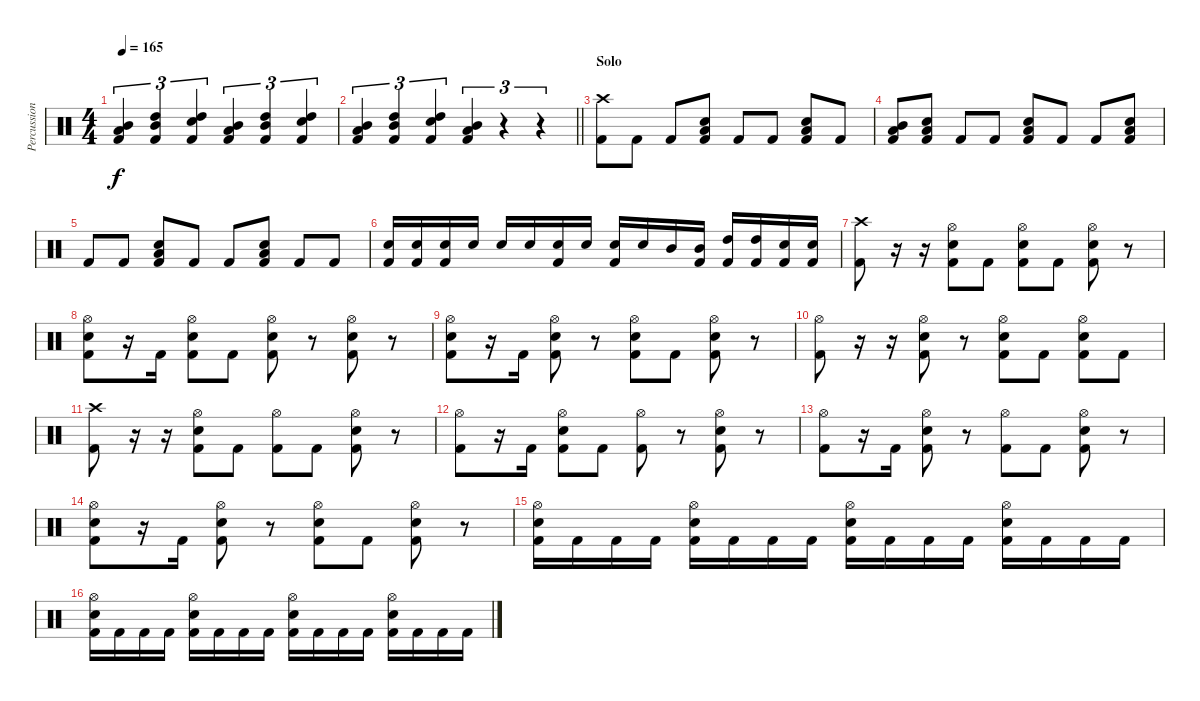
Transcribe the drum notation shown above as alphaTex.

\track ("Percussion" "Percussion") {instrument percussion}
\staff {score}
\articulation defaults
\ts (4 4)
\tempo 165
\clef neutral
\ks c
("Kick (hit) 2" "Low Tom (hit)" "Mid Tom (hit)").4{tu (3 2) dy f} ("Kick (hit) 2" "Mid Tom (hit)" "High Tom (hit)").4{tu (3 2)} ("Kick (hit) 2" "High Tom (hit)" "Snare (hit) 2").4{tu (3 2)} ("Kick (hit) 2" "Low Tom (hit)" "Mid Tom (hit)").4{tu (3 2)} ("Kick (hit) 2" "Mid Tom (hit)" "High Tom (hit)").4{tu (3 2)} ("Kick (hit) 2" "High Tom (hit)" "Snare (hit) 2").4{tu (3 2)} |
\barLineRight lightlight
("Kick (hit) 2" "Low Tom (hit)" "Mid Tom (hit)").4{tu (3 2)} ("Kick (hit) 2" "Mid Tom (hit)" "High Tom (hit)").4{tu (3 2)} ("Kick (hit) 2" "High Tom (hit)" "Snare (hit) 2").4{tu (3 2)} ("Kick (hit) 2" "Low Tom (hit)" "Mid Tom (hit)").4{tu (3 2)} r.4{tu (3 2)} r.4{tu (3 2)} |
\section ("" "Solo")
("Kick (hit) 2" "Crash high (hit)").8 "Kick (hit) 2".8 "Kick (hit) 2".8 ("Kick (hit) 2" "Low Tom (hit)" "Snare (hit) 2").8 "Kick (hit) 2".8 "Kick (hit) 2".8 ("Kick (hit) 2" "Low Tom (hit)" "Snare (hit) 2").8 "Kick (hit) 2".8 |
("Kick (hit) 2" "Low Tom (hit)" "Mid Tom (hit)").8 ("Kick (hit) 2" "Low Tom (hit)" "Snare (hit) 2").8 "Kick (hit) 2".8 "Kick (hit) 2".8 ("Kick (hit) 2" "Low Tom (hit)" "Snare (hit) 2").8 "Kick (hit) 2".8 "Kick (hit) 2".8 ("Kick (hit) 2" "Low Tom (hit)" "Snare (hit) 2").8 |
"Kick (hit) 2".8 "Kick (hit) 2".8 ("Kick (hit) 2" "Low Tom (hit)" "Snare (hit) 2").8 "Kick (hit) 2".8 "Kick (hit) 2".8 ("Kick (hit) 2" "Low Tom (hit)" "Snare (hit) 2").8 "Kick (hit) 2".8 "Kick (hit) 2".8 |
("Kick (hit) 2" "Snare (hit) 2").16 ("Kick (hit) 2" "Snare (hit) 2").16 ("Kick (hit) 2" "Snare (hit) 2").16 "Snare (hit) 2".16 "Snare (hit) 2".16 "Snare (hit) 2".16 ("Kick (hit) 2" "Snare (hit) 2").16 "Snare (hit) 2".16 ("Kick (hit) 2" "Snare (hit) 2").16 "Snare (hit) 2".16 "Mid Tom (hit)".16 ("Kick (hit) 2" "Mid Tom (hit)").16 ("Kick (hit) 2" "High Tom (hit)").16 ("Kick (hit) 2" "High Tom (hit)").16 ("Kick (hit) 2" "Snare (hit) 2").16 ("Kick (hit) 2" "Snare (hit) 2").16 |
("Kick (hit) 2" "Crash high (hit)").8 r.16 r.16 ("Hi-Hat (open)" "Kick (hit) 2" "Snare (hit) 2").8 "Kick (hit) 2".8 ("Hi-Hat (open)" "Kick (hit) 2" "Snare (hit) 2").8 "Kick (hit) 2".8 ("Hi-Hat (open)" "Kick (hit) 2" "Snare (hit) 2").8 r.8 |
("Hi-Hat (open)" "Kick (hit) 2" "Snare (hit) 2").8 r.16 "Kick (hit) 2".16 ("Hi-Hat (open)" "Kick (hit) 2" "Snare (hit) 2").8 "Kick (hit) 2".8 ("Hi-Hat (open)" "Kick (hit) 2" "Snare (hit) 2").8 r.8 ("Hi-Hat (open)" "Kick (hit) 2" "Snare (hit) 2").8 r.8 |
("Hi-Hat (open)" "Kick (hit) 2" "Snare (hit) 2").8 r.16 "Kick (hit) 2".16 ("Hi-Hat (open)" "Kick (hit) 2" "Snare (hit) 2").8 r.8 ("Hi-Hat (open)" "Kick (hit) 2" "Snare (hit) 2").8 "Kick (hit) 2".8 ("Hi-Hat (open)" "Kick (hit) 2" "Snare (hit) 2").8 r.8 |
("Kick (hit) 2" "Hi-Hat (open)").8 r.16 r.16 ("Hi-Hat (open)" "Kick (hit) 2" "Snare (hit) 2").8 r.8 ("Hi-Hat (open)" "Kick (hit) 2" "Snare (hit) 2").8 "Kick (hit) 2".8 ("Hi-Hat (open)" "Kick (hit) 2" "Snare (hit) 2").8 "Kick (hit) 2".8 |
("Kick (hit) 2" "Crash high (hit)").8 r.16 r.16 ("Hi-Hat (open)" "Kick (hit) 2" "Snare (hit) 2").8 "Kick (hit) 2".8 ("Hi-Hat (open)" "Kick (hit) 2").8 "Kick (hit) 2".8 ("Hi-Hat (open)" "Kick (hit) 2" "Snare (hit) 2").8 r.8 |
("Hi-Hat (open)" "Kick (hit) 2").8 r.16 "Kick (hit) 2".16 ("Hi-Hat (open)" "Kick (hit) 2" "Snare (hit) 2").8 "Kick (hit) 2".8 ("Hi-Hat (open)" "Kick (hit) 2").8 r.8 ("Hi-Hat (open)" "Kick (hit) 2" "Snare (hit) 2").8 r.8 |
("Hi-Hat (open)" "Kick (hit) 2").8 r.16 "Kick (hit) 2".16 ("Hi-Hat (open)" "Kick (hit) 2" "Snare (hit) 2").8 r.8 ("Hi-Hat (open)" "Kick (hit) 2").8 "Kick (hit) 2".8 ("Hi-Hat (open)" "Kick (hit) 2" "Snare (hit) 2").8 r.8 |
("Hi-Hat (open)" "Kick (hit) 2" "Snare (hit) 2").8 r.16 "Kick (hit) 2".16 ("Hi-Hat (open)" "Kick (hit) 2" "Snare (hit) 2").8 r.8 ("Hi-Hat (open)" "Kick (hit) 2" "Snare (hit) 2").8 "Kick (hit) 2".8 ("Hi-Hat (open)" "Kick (hit) 2" "Snare (hit) 2").8 r.8 |
("Kick (hit) 2" "Hi-Hat (open)" "Snare (hit) 2").16 "Kick (hit) 2".16 "Kick (hit) 2".16 "Kick (hit) 2".16 ("Kick (hit) 2" "Hi-Hat (open)" "Snare (hit) 2").16 "Kick (hit) 2".16 "Kick (hit) 2".16 "Kick (hit) 2".16 ("Kick (hit) 2" "Hi-Hat (open)" "Snare (hit) 2").16 "Kick (hit) 2".16 "Kick (hit) 2".16 "Kick (hit) 2".16 ("Kick (hit) 2" "Hi-Hat (open)" "Snare (hit) 2").16 "Kick (hit) 2".16 "Kick (hit) 2".16 "Kick (hit) 2".16 |
("Kick (hit) 2" "Hi-Hat (open)" "Snare (hit) 2").16 "Kick (hit) 2".16 "Kick (hit) 2".16 "Kick (hit) 2".16 ("Kick (hit) 2" "Hi-Hat (open)" "Snare (hit) 2").16 "Kick (hit) 2".16 "Kick (hit) 2".16 "Kick (hit) 2".16 ("Kick (hit) 2" "Hi-Hat (open)" "Snare (hit) 2").16 "Kick (hit) 2".16 "Kick (hit) 2".16 "Kick (hit) 2".16 ("Kick (hit) 2" "Hi-Hat (open)" "Snare (hit) 2").16 "Kick (hit) 2".16 "Kick (hit) 2".16 "Kick (hit) 2".16
